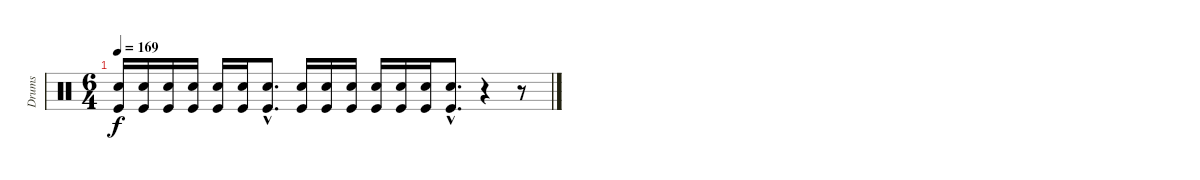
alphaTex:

\track ("Drums" "Drums") {instrument percussion}
\staff {score}
\articulation defaults
\ts (6 4)
\tempo 169
\clef neutral
\ks c
("Kick (hit)" "Electric Snare (hit)").16{dy f} ("Kick (hit)" "Electric Snare (hit)").16 ("Kick (hit)" "Electric Snare (hit)").16 ("Kick (hit)" "Electric Snare (hit)").16 ("Kick (hit)" "Electric Snare (hit)").16 ("Kick (hit)" "Electric Snare (hit)").16 ("Kick (hit)"{hac} "Electric Snare (hit)"{hac}).8{d} ("Kick (hit)" "Electric Snare (hit)").16 ("Kick (hit)" "Electric Snare (hit)").16 ("Kick (hit)" "Electric Snare (hit)").16 ("Kick (hit)" "Electric Snare (hit)").16 ("Kick (hit)" "Electric Snare (hit)").16 ("Kick (hit)" "Electric Snare (hit)").16 ("Kick (hit)"{hac} "Electric Snare (hit)"{hac}).8{d} r.4 r.8
